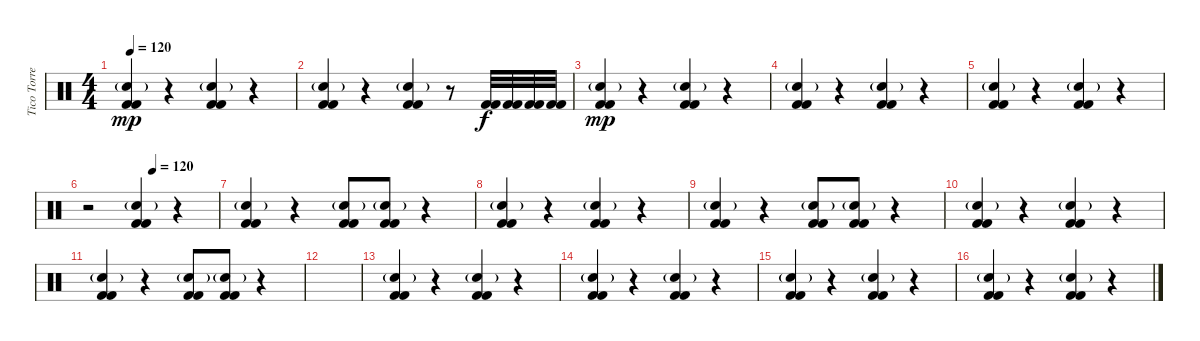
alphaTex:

\track ("Tico Torres" "Tico Torre") {instrument percussion}
\staff {score}
\articulation defaults
\ts (4 4)
\tempo 120
\clef neutral
\ks c
("Electric Snare (hit)"{g} "Kick (hit) 2" "Kick (hit) 2").4{dy mp} r.4 ("Electric Snare (hit)"{g} "Kick (hit) 2" "Kick (hit) 2").4 r.4 |
("Electric Snare (hit)"{g} "Kick (hit) 2" "Kick (hit) 2").4 r.4 ("Electric Snare (hit)"{g} "Kick (hit) 2" "Kick (hit) 2").4 r.8 ("Kick (hit) 2" "Kick (hit) 2").32{dy f} ("Kick (hit) 2" "Kick (hit) 2").32 ("Kick (hit) 2" "Kick (hit) 2").32 ("Kick (hit) 2" "Kick (hit) 2").32 |
("Electric Snare (hit)"{g} "Kick (hit) 2" "Kick (hit) 2").4{dy mp} r.4 ("Electric Snare (hit)"{g} "Kick (hit) 2" "Kick (hit) 2").4 r.4 |
("Electric Snare (hit)"{g} "Kick (hit) 2" "Kick (hit) 2").4 r.4 ("Electric Snare (hit)"{g} "Kick (hit) 2" "Kick (hit) 2").4 r.4 |
("Electric Snare (hit)"{g} "Kick (hit) 2" "Kick (hit) 2").4 r.4 ("Electric Snare (hit)"{g} "Kick (hit) 2" "Kick (hit) 2").4 r.4 |
\tempo (120 0.5)
r.2 ("Electric Snare (hit)"{g} "Kick (hit) 2" "Kick (hit) 2").4 r.4 |
("Electric Snare (hit)"{g} "Kick (hit) 2" "Kick (hit) 2").4 r.4 ("Electric Snare (hit)"{g} "Kick (hit) 2" "Kick (hit) 2").8 ("Electric Snare (hit)"{g} "Kick (hit) 2" "Kick (hit) 2").8 r.4 |
("Electric Snare (hit)"{g} "Kick (hit) 2" "Kick (hit) 2").4 r.4 ("Electric Snare (hit)"{g} "Kick (hit) 2" "Kick (hit) 2").4 r.4 |
("Electric Snare (hit)"{g} "Kick (hit) 2" "Kick (hit) 2").4 r.4 ("Electric Snare (hit)"{g} "Kick (hit) 2" "Kick (hit) 2").8 ("Electric Snare (hit)"{g} "Kick (hit) 2" "Kick (hit) 2").8 r.4 |
("Electric Snare (hit)"{g} "Kick (hit) 2" "Kick (hit) 2").4 r.4 ("Electric Snare (hit)"{g} "Kick (hit) 2" "Kick (hit) 2").4 r.4 |
("Electric Snare (hit)"{g} "Kick (hit) 2" "Kick (hit) 2").4 r.4 ("Electric Snare (hit)"{g} "Kick (hit) 2" "Kick (hit) 2").8 ("Electric Snare (hit)"{g} "Kick (hit) 2" "Kick (hit) 2").8 r.4 |
|
("Electric Snare (hit)"{g} "Kick (hit) 2" "Kick (hit) 2").4 r.4 ("Electric Snare (hit)"{g} "Kick (hit) 2" "Kick (hit) 2").4 r.4 |
("Electric Snare (hit)"{g} "Kick (hit) 2" "Kick (hit) 2").4 r.4 ("Electric Snare (hit)"{g} "Kick (hit) 2" "Kick (hit) 2").4 r.4 |
("Electric Snare (hit)"{g} "Kick (hit) 2" "Kick (hit) 2").4 r.4 ("Electric Snare (hit)"{g} "Kick (hit) 2" "Kick (hit) 2").4 r.4 |
("Electric Snare (hit)"{g} "Kick (hit) 2" "Kick (hit) 2").4 r.4 ("Electric Snare (hit)"{g} "Kick (hit) 2" "Kick (hit) 2").4 r.4
